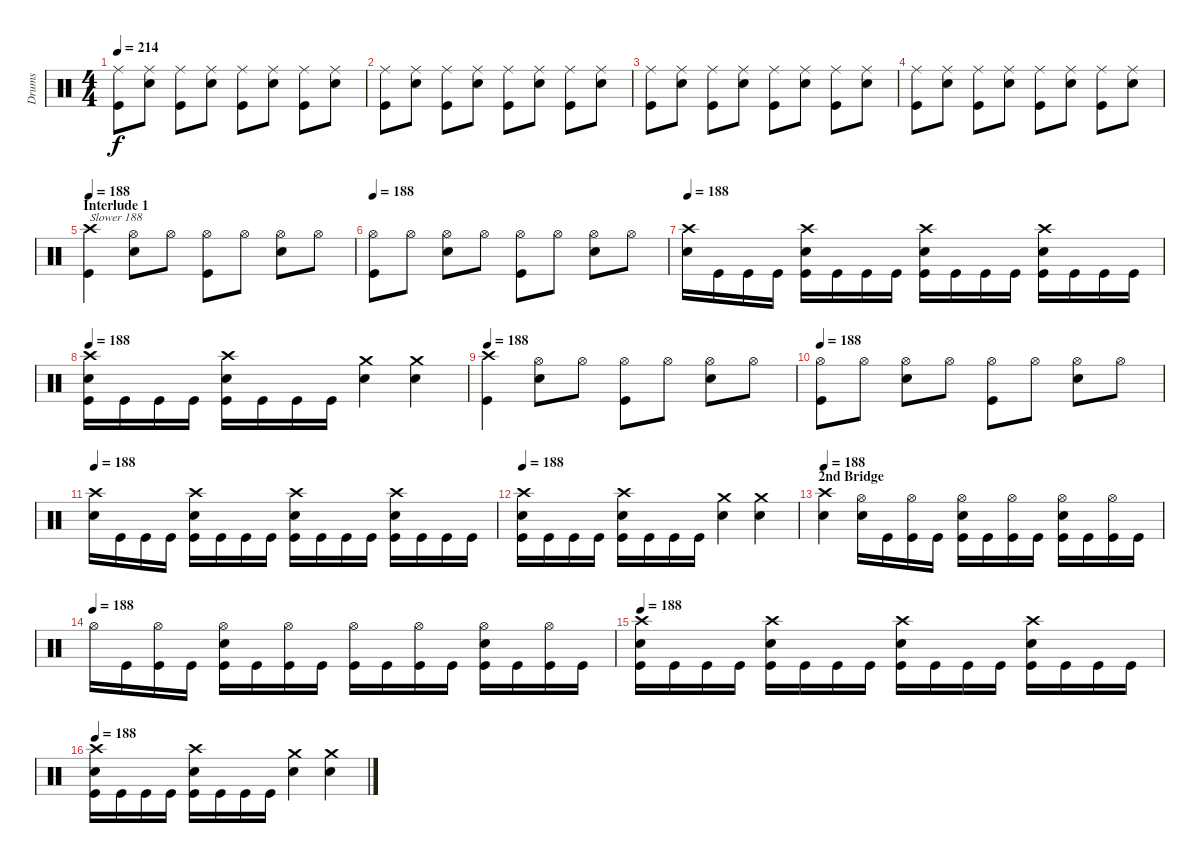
\track ("Drums" "Drums") {instrument percussion}
\staff {score}
\articulation defaults
\ts (4 4)
\tempo 214
\clef neutral
\ks c
("Ride (middle)" "Kick (hit)").8{dy f} ("Ride (middle)" "Snare (hit) 2").8 ("Ride (middle)" "Kick (hit)").8 ("Ride (middle)" "Snare (hit) 2").8 ("Ride (middle)" "Kick (hit)").8 ("Ride (middle)" "Snare (hit) 2").8 ("Ride (middle)" "Kick (hit)").8 ("Ride (middle)" "Snare (hit) 2").8 |
("Ride (middle)" "Kick (hit)").8 ("Ride (middle)" "Snare (hit) 2").8 ("Ride (middle)" "Kick (hit)").8 ("Ride (middle)" "Snare (hit) 2").8 ("Ride (middle)" "Kick (hit)").8 ("Ride (middle)" "Snare (hit) 2").8 ("Ride (middle)" "Kick (hit)").8 ("Ride (middle)" "Snare (hit) 2").8 |
("Ride (middle)" "Kick (hit)").8 ("Ride (middle)" "Snare (hit) 2").8 ("Ride (middle)" "Kick (hit)").8 ("Ride (middle)" "Snare (hit) 2").8 ("Ride (middle)" "Kick (hit)").8 ("Ride (middle)" "Snare (hit) 2").8 ("Ride (middle)" "Kick (hit)").8 ("Ride (middle)" "Snare (hit) 2").8 |
("Ride (middle)" "Kick (hit)").8 ("Ride (middle)" "Snare (hit) 2").8 ("Ride (middle)" "Kick (hit)").8 ("Ride (middle)" "Snare (hit) 2").8 ("Ride (middle)" "Kick (hit)").8 ("Ride (middle)" "Snare (hit) 2").8 ("Ride (middle)" "Kick (hit)").8 ("Ride (middle)" "Snare (hit) 2").8 |
\section ("" "Interlude 1")
\tempo 188
("Crash high (hit)" "Kick (hit)").4{txt "Slower 188"} ("Hi-Hat (open)" "Snare (hit) 2").8 "Hi-Hat (open)".8 ("Hi-Hat (open)" "Kick (hit)").8 "Hi-Hat (open)".8 ("Hi-Hat (open)" "Snare (hit) 2").8 "Hi-Hat (open)".8 |
\tempo 188
("Hi-Hat (open)" "Kick (hit)").8 "Hi-Hat (open)".8 ("Hi-Hat (open)" "Snare (hit) 2").8 "Hi-Hat (open)".8 ("Hi-Hat (open)" "Kick (hit)").8 "Hi-Hat (open)".8 ("Hi-Hat (open)" "Snare (hit) 2").8 "Hi-Hat (open)".8 |
\tempo 188
("Crash high (hit)" "Snare (hit) 2").16 "Kick (hit)".16 "Kick (hit)".16 "Kick (hit)".16 ("Crash high (hit)" "Snare (hit) 2" "Kick (hit)").16 "Kick (hit)".16 "Kick (hit)".16 "Kick (hit)".16 ("Crash high (hit)" "Snare (hit) 2" "Kick (hit)").16 "Kick (hit)".16 "Kick (hit)".16 "Kick (hit)".16 ("Crash high (hit)" "Snare (hit) 2" "Kick (hit)").16 "Kick (hit)".16 "Kick (hit)".16 "Kick (hit)".16 |
\tempo 188
("Crash high (hit)" "Snare (hit) 2" "Kick (hit)").16 "Kick (hit)".16 "Kick (hit)".16 "Kick (hit)".16 ("Crash high (hit)" "Snare (hit) 2" "Kick (hit)").16 "Kick (hit)".16 "Kick (hit)".16 "Kick (hit)".16 ("Crash medium (hit)" "Snare (hit) 2").4 ("Crash medium (hit)" "Snare (hit) 2").4 |
\tempo 188
("Crash high (hit)" "Kick (hit)").4 ("Hi-Hat (open)" "Snare (hit) 2").8 "Hi-Hat (open)".8 ("Hi-Hat (open)" "Kick (hit)").8 "Hi-Hat (open)".8 ("Hi-Hat (open)" "Snare (hit) 2").8 "Hi-Hat (open)".8 |
\tempo 188
("Hi-Hat (open)" "Kick (hit)").8 "Hi-Hat (open)".8 ("Hi-Hat (open)" "Snare (hit) 2").8 "Hi-Hat (open)".8 ("Hi-Hat (open)" "Kick (hit)").8 "Hi-Hat (open)".8 ("Hi-Hat (open)" "Snare (hit) 2").8 "Hi-Hat (open)".8 |
\tempo 188
("Crash high (hit)" "Snare (hit) 2").16 "Kick (hit)".16 "Kick (hit)".16 "Kick (hit)".16 ("Crash high (hit)" "Snare (hit) 2" "Kick (hit)").16 "Kick (hit)".16 "Kick (hit)".16 "Kick (hit)".16 ("Crash high (hit)" "Snare (hit) 2" "Kick (hit)").16 "Kick (hit)".16 "Kick (hit)".16 "Kick (hit)".16 ("Crash high (hit)" "Snare (hit) 2" "Kick (hit)").16 "Kick (hit)".16 "Kick (hit)".16 "Kick (hit)".16 |
\tempo 188
("Crash high (hit)" "Snare (hit) 2" "Kick (hit)").16 "Kick (hit)".16 "Kick (hit)".16 "Kick (hit)".16 ("Crash high (hit)" "Snare (hit) 2" "Kick (hit)").16 "Kick (hit)".16 "Kick (hit)".16 "Kick (hit)".16 ("Crash medium (hit)" "Snare (hit) 2").4 ("Crash medium (hit)" "Snare (hit) 2").4 |
\section ("" "2nd Bridge")
\tempo 188
("Crash high (hit)" "Snare (hit) 2").4 ("Hi-Hat (open)" "Snare (hit) 2").16 "Kick (hit)".16 ("Hi-Hat (open)" "Kick (hit)").16 "Kick (hit)".16 ("Hi-Hat (open)" "Snare (hit) 2" "Kick (hit)").16 "Kick (hit)".16 ("Hi-Hat (open)" "Kick (hit)").16 "Kick (hit)".16 ("Hi-Hat (open)" "Snare (hit) 2" "Kick (hit)").16 "Kick (hit)".16 ("Hi-Hat (open)" "Kick (hit)").16 "Kick (hit)".16 |
\tempo (188)
"Hi-Hat (open)".16 "Kick (hit)".16 ("Hi-Hat (open)" "Kick (hit)").16 "Kick (hit)".16 ("Hi-Hat (open)" "Snare (hit) 2" "Kick (hit)").16 "Kick (hit)".16 ("Hi-Hat (open)" "Kick (hit)").16 "Kick (hit)".16 ("Hi-Hat (open)" "Kick (hit)").16 "Kick (hit)".16 ("Hi-Hat (open)" "Kick (hit)").16 "Kick (hit)".16 ("Hi-Hat (open)" "Snare (hit) 2" "Kick (hit)").16 "Kick (hit)".16 ("Hi-Hat (open)" "Kick (hit)").16 "Kick (hit)".16 |
\tempo 188
("Crash high (hit)" "Snare (hit) 2" "Kick (hit)").16 "Kick (hit)".16 "Kick (hit)".16 "Kick (hit)".16 ("Crash high (hit)" "Snare (hit) 2" "Kick (hit)").16 "Kick (hit)".16 "Kick (hit)".16 "Kick (hit)".16 ("Crash high (hit)" "Snare (hit) 2" "Kick (hit)").16 "Kick (hit)".16 "Kick (hit)".16 "Kick (hit)".16 ("Crash high (hit)" "Snare (hit) 2" "Kick (hit)").16 "Kick (hit)".16 "Kick (hit)".16 "Kick (hit)".16 |
\tempo 188
("Crash high (hit)" "Snare (hit) 2" "Kick (hit)").16 "Kick (hit)".16 "Kick (hit)".16 "Kick (hit)".16 ("Crash high (hit)" "Snare (hit) 2" "Kick (hit)").16 "Kick (hit)".16 "Kick (hit)".16 "Kick (hit)".16 ("Crash medium (hit)" "Snare (hit) 2").4 ("Crash medium (hit)" "Snare (hit) 2").4
